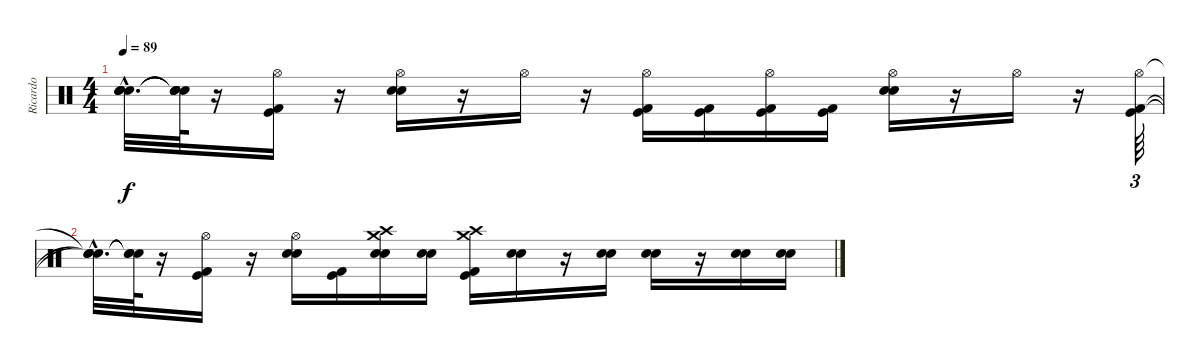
\track ("Ricardo" "Ricardo") {instrument percussion}
\staff {score}
\articulation defaults
\ts (4 4)
\tempo 89
\clef neutral
\ks c
("Snare (hit)"{hac t} "Snare (hit)"{hac t} "Snare (hit)"{hac t} "Snare (hit)"{hac t}).32{d dy f} ("Snare (hit)"{t} "Snare (hit)"{t} "Snare (hit)"{t} "Snare (hit)"{t}).64 r.16 ("Hi-Hat (open)" "Kick (hit) 2" "Kick (hit)").16 r.16 ("Hi-Hat (open)" "Electric Snare (hit)" "Snare (hit) 2").16 r.16 "Hi-Hat (open)".16 r.16 ("Hi-Hat (open)" "Kick (hit) 2" "Kick (hit)").16 ("Kick (hit) 2" "Kick (hit)").16 ("Hi-Hat (open)" "Kick (hit) 2" "Kick (hit)").16 ("Kick (hit) 2" "Kick (hit)").16 ("Hi-Hat (open)" "Electric Snare (hit)" "Snare (hit) 2").16 r.16 "Hi-Hat (open)".16 r.16 ("Hi-Hat (open)" "Kick (hit) 2" "Kick (hit)").64{tu (3 2)} |
("Snare (hit)"{hac t} "Snare (hit)"{hac t} "Snare (hit)"{hac t}).32{d} ("Snare (hit)"{t} "Snare (hit)"{t} "Snare (hit)"{t}).64 r.16 ("Hi-Hat (open)" "Kick (hit) 2" "Kick (hit)").16 r.16 ("Hi-Hat (open)" "Electric Snare (hit)" "Snare (hit) 2").16 ("Kick (hit) 2" "Kick (hit)").16 ("Crash medium (hit)" "Crash high (hit)" "Electric Snare (hit)" "Snare (hit) 2").16 ("Electric Snare (hit)" "Snare (hit) 2").16 ("Crash medium (hit)" "Crash high (hit)" "Kick (hit) 2" "Kick (hit)").16 ("Electric Snare (hit)" "Snare (hit) 2").16 r.16 ("Electric Snare (hit)" "Snare (hit) 2").16 ("Electric Snare (hit)" "Snare (hit) 2").16 r.16 ("Electric Snare (hit)" "Snare (hit) 2").16 ("Electric Snare (hit)" "Snare (hit) 2").16
